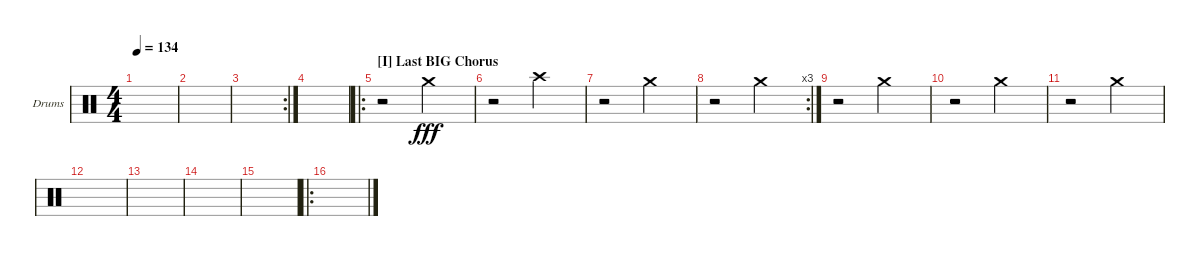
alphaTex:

\defaultSystemsLayout 4
\bracketExtendMode groupsimilarinstruments
\firstSystemTrackNameOrientation horizontal
\otherSystemsTrackNameOrientation horizontal
\track ("Cymbals" "Drums") {instrument percussion}
\staff {score}
\articulation defaults
\ts (4 4)
\tempo 134
\clef neutral
\ks c
|
|
\rc 2
|
|
\ro
\section ("I" "Last BIG Chorus")
r.2 "Crash medium (hit)".2{dy fff} |
r.2 "Crash high (hit)".2 |
r.2 "Crash medium (hit)".2 |
\rc 3
r.2 "Crash medium (hit)".2 |
r.2 "Crash medium (hit)".2 |
r.2 "Crash medium (hit)".2 |
r.2 "Crash medium (hit)".2 |
|
|
|
|
\ro
